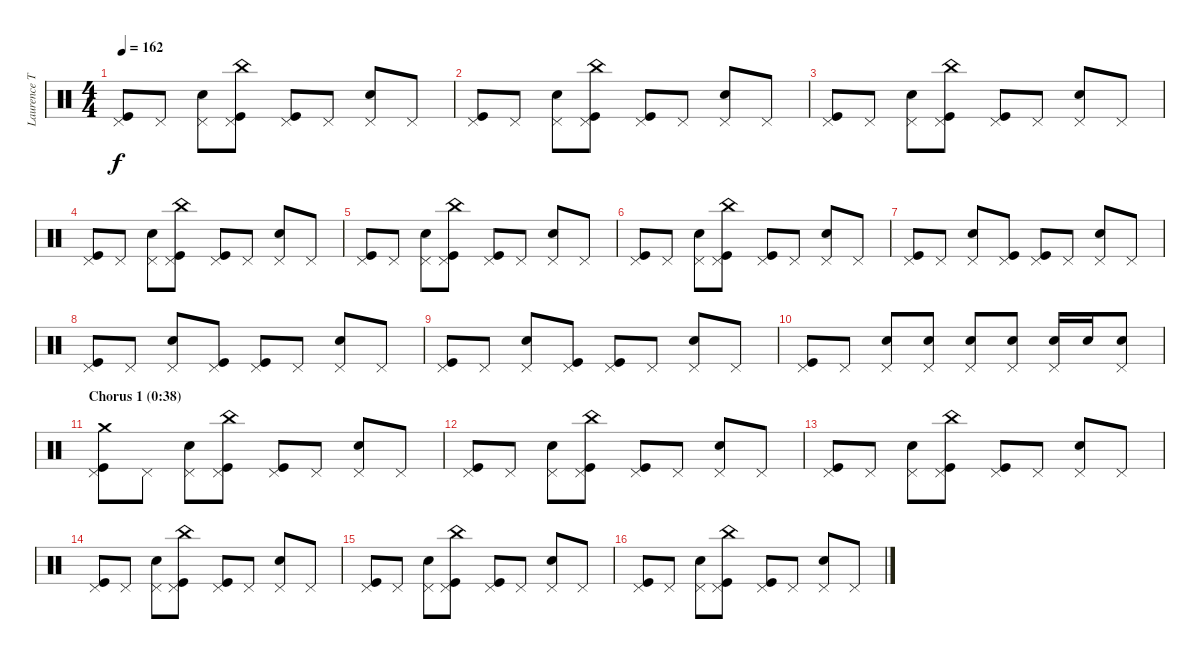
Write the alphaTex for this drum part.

\track ("Laurence Tolhurst (drums)" "Laurence T") {instrument percussion}
\staff {score}
\articulation defaults
\ts (4 4)
\tempo 162
\clef neutral
\ks c
("Pedal Hi-Hat (hit)" "Kick (hit)").8{dy f} "Pedal Hi-Hat (hit)".8 ("Pedal Hi-Hat (hit)" "Snare (hit) 2").8 ("China (hit)" "Pedal Hi-Hat (hit)" "Kick (hit)").8 ("Pedal Hi-Hat (hit)" "Kick (hit)").8 "Pedal Hi-Hat (hit)".8 ("Pedal Hi-Hat (hit)" "Snare (hit) 2").8 "Pedal Hi-Hat (hit)".8 |
("Pedal Hi-Hat (hit)" "Kick (hit)").8 "Pedal Hi-Hat (hit)".8 ("Pedal Hi-Hat (hit)" "Snare (hit) 2").8 ("China (hit)" "Pedal Hi-Hat (hit)" "Kick (hit)").8 ("Pedal Hi-Hat (hit)" "Kick (hit)").8 "Pedal Hi-Hat (hit)".8 ("Pedal Hi-Hat (hit)" "Snare (hit) 2").8 "Pedal Hi-Hat (hit)".8 |
("Pedal Hi-Hat (hit)" "Kick (hit)").8 "Pedal Hi-Hat (hit)".8 ("Pedal Hi-Hat (hit)" "Snare (hit) 2").8 ("China (hit)" "Pedal Hi-Hat (hit)" "Kick (hit)").8 ("Pedal Hi-Hat (hit)" "Kick (hit)").8 "Pedal Hi-Hat (hit)".8 ("Pedal Hi-Hat (hit)" "Snare (hit) 2").8 "Pedal Hi-Hat (hit)".8 |
("Pedal Hi-Hat (hit)" "Kick (hit)").8 "Pedal Hi-Hat (hit)".8 ("Pedal Hi-Hat (hit)" "Snare (hit) 2").8 ("China (hit)" "Pedal Hi-Hat (hit)" "Kick (hit)").8 ("Pedal Hi-Hat (hit)" "Kick (hit)").8 "Pedal Hi-Hat (hit)".8 ("Pedal Hi-Hat (hit)" "Snare (hit) 2").8 "Pedal Hi-Hat (hit)".8 |
("Pedal Hi-Hat (hit)" "Kick (hit)").8 "Pedal Hi-Hat (hit)".8 ("Pedal Hi-Hat (hit)" "Snare (hit) 2").8 ("China (hit)" "Pedal Hi-Hat (hit)" "Kick (hit)").8 ("Pedal Hi-Hat (hit)" "Kick (hit)").8 "Pedal Hi-Hat (hit)".8 ("Pedal Hi-Hat (hit)" "Snare (hit) 2").8 "Pedal Hi-Hat (hit)".8 |
("Pedal Hi-Hat (hit)" "Kick (hit)").8 "Pedal Hi-Hat (hit)".8 ("Pedal Hi-Hat (hit)" "Snare (hit) 2").8 ("China (hit)" "Pedal Hi-Hat (hit)" "Kick (hit)").8 ("Pedal Hi-Hat (hit)" "Kick (hit)").8 "Pedal Hi-Hat (hit)".8 ("Pedal Hi-Hat (hit)" "Snare (hit) 2").8 "Pedal Hi-Hat (hit)".8 |
("Pedal Hi-Hat (hit)" "Kick (hit)").8 "Pedal Hi-Hat (hit)".8 ("Pedal Hi-Hat (hit)" "Snare (hit) 2").8 ("Pedal Hi-Hat (hit)" "Kick (hit)").8 ("Pedal Hi-Hat (hit)" "Kick (hit)").8 "Pedal Hi-Hat (hit)".8 ("Pedal Hi-Hat (hit)" "Snare (hit) 2").8 "Pedal Hi-Hat (hit)".8 |
("Pedal Hi-Hat (hit)" "Kick (hit)").8 "Pedal Hi-Hat (hit)".8 ("Pedal Hi-Hat (hit)" "Snare (hit) 2").8 ("Pedal Hi-Hat (hit)" "Kick (hit)").8 ("Pedal Hi-Hat (hit)" "Kick (hit)").8 "Pedal Hi-Hat (hit)".8 ("Pedal Hi-Hat (hit)" "Snare (hit) 2").8 "Pedal Hi-Hat (hit)".8 |
("Pedal Hi-Hat (hit)" "Kick (hit)").8 "Pedal Hi-Hat (hit)".8 ("Pedal Hi-Hat (hit)" "Snare (hit) 2").8 ("Pedal Hi-Hat (hit)" "Kick (hit)").8 ("Pedal Hi-Hat (hit)" "Kick (hit)").8 "Pedal Hi-Hat (hit)".8 ("Pedal Hi-Hat (hit)" "Snare (hit) 2").8 "Pedal Hi-Hat (hit)".8 |
("Pedal Hi-Hat (hit)" "Kick (hit)").8 "Pedal Hi-Hat (hit)".8 ("Pedal Hi-Hat (hit)" "Snare (hit) 2").8 ("Pedal Hi-Hat (hit)" "Snare (hit) 2").8 ("Pedal Hi-Hat (hit)" "Snare (hit) 2").8 ("Pedal Hi-Hat (hit)" "Snare (hit) 2").8 ("Pedal Hi-Hat (hit)" "Snare (hit) 2").16 "Snare (hit) 2".16 ("Pedal Hi-Hat (hit)" "Snare (hit) 2").8 |
\section ("" "Chorus 1 (0:38)")
("Crash medium (hit)" "Pedal Hi-Hat (hit)" "Kick (hit)").8 "Pedal Hi-Hat (hit)".8 ("Pedal Hi-Hat (hit)" "Snare (hit) 2").8 ("China (hit)" "Pedal Hi-Hat (hit)" "Kick (hit)").8 ("Pedal Hi-Hat (hit)" "Kick (hit)").8 "Pedal Hi-Hat (hit)".8 ("Pedal Hi-Hat (hit)" "Snare (hit) 2").8 "Pedal Hi-Hat (hit)".8 |
("Pedal Hi-Hat (hit)" "Kick (hit)").8 "Pedal Hi-Hat (hit)".8 ("Pedal Hi-Hat (hit)" "Snare (hit) 2").8 ("China (hit)" "Pedal Hi-Hat (hit)" "Kick (hit)").8 ("Pedal Hi-Hat (hit)" "Kick (hit)").8 "Pedal Hi-Hat (hit)".8 ("Pedal Hi-Hat (hit)" "Snare (hit) 2").8 "Pedal Hi-Hat (hit)".8 |
("Pedal Hi-Hat (hit)" "Kick (hit)").8 "Pedal Hi-Hat (hit)".8 ("Pedal Hi-Hat (hit)" "Snare (hit) 2").8 ("China (hit)" "Pedal Hi-Hat (hit)" "Kick (hit)").8 ("Pedal Hi-Hat (hit)" "Kick (hit)").8 "Pedal Hi-Hat (hit)".8 ("Pedal Hi-Hat (hit)" "Snare (hit) 2").8 "Pedal Hi-Hat (hit)".8 |
("Pedal Hi-Hat (hit)" "Kick (hit)").8 "Pedal Hi-Hat (hit)".8 ("Pedal Hi-Hat (hit)" "Snare (hit) 2").8 ("China (hit)" "Pedal Hi-Hat (hit)" "Kick (hit)").8 ("Pedal Hi-Hat (hit)" "Kick (hit)").8 "Pedal Hi-Hat (hit)".8 ("Pedal Hi-Hat (hit)" "Snare (hit) 2").8 "Pedal Hi-Hat (hit)".8 |
("Pedal Hi-Hat (hit)" "Kick (hit)").8 "Pedal Hi-Hat (hit)".8 ("Pedal Hi-Hat (hit)" "Snare (hit) 2").8 ("China (hit)" "Pedal Hi-Hat (hit)" "Kick (hit)").8 ("Pedal Hi-Hat (hit)" "Kick (hit)").8 "Pedal Hi-Hat (hit)".8 ("Pedal Hi-Hat (hit)" "Snare (hit) 2").8 "Pedal Hi-Hat (hit)".8 |
("Pedal Hi-Hat (hit)" "Kick (hit)").8 "Pedal Hi-Hat (hit)".8 ("Pedal Hi-Hat (hit)" "Snare (hit) 2").8 ("China (hit)" "Pedal Hi-Hat (hit)" "Kick (hit)").8 ("Pedal Hi-Hat (hit)" "Kick (hit)").8 "Pedal Hi-Hat (hit)".8 ("Pedal Hi-Hat (hit)" "Snare (hit) 2").8 "Pedal Hi-Hat (hit)".8
